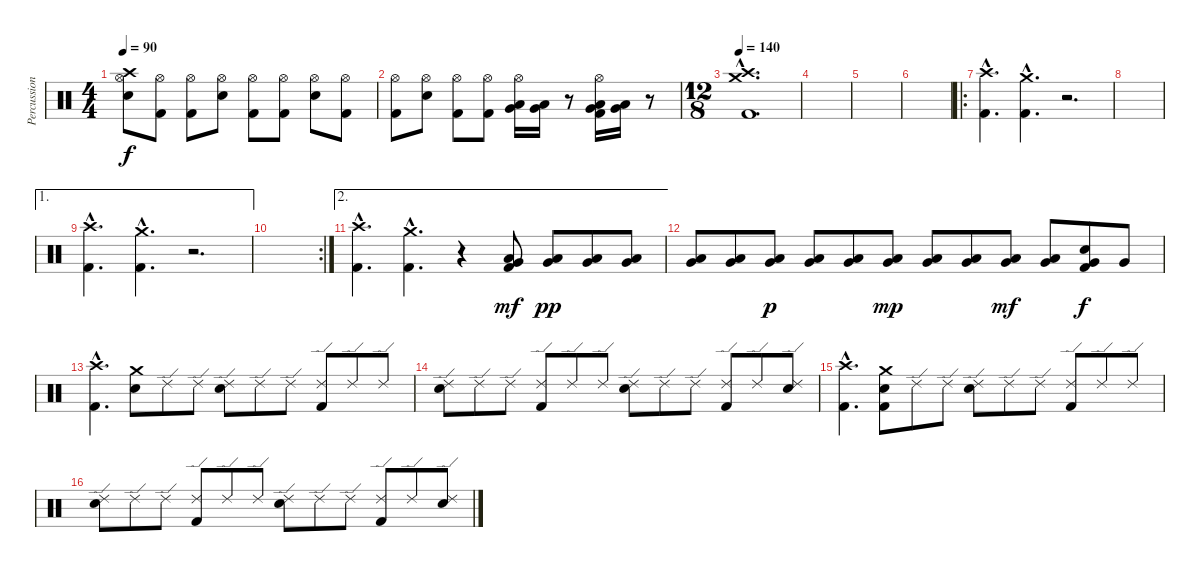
\track ("Percussion" "Percussion") {instrument percussion}
\staff {score}
\articulation defaults
\ts (4 4)
\tempo 90
\clef neutral
\ks c
("Crash high (hit)" "Hi-Hat (open)" "Electric Snare (hit)").8{dy f} ("Hi-Hat (open)" "Kick (hit) 2").8 ("Hi-Hat (open)" "Kick (hit) 2").8 ("Hi-Hat (open)" "Electric Snare (hit)").8 ("Hi-Hat (open)" "Kick (hit) 2").8 ("Hi-Hat (open)" "Kick (hit) 2").8 ("Hi-Hat (open)" "Electric Snare (hit)").8 ("Hi-Hat (open)" "Kick (hit) 2").8 |
("Hi-Hat (open)" "Kick (hit) 2").8 ("Hi-Hat (open)" "Electric Snare (hit)").8 ("Hi-Hat (open)" "Kick (hit) 2").8 ("Hi-Hat (open)" "Kick (hit) 2").8 ("Hi-Hat (open)" "Very Low Tom (hit)" "Low Tom (hit)").16 ("Very Low Tom (hit)" "Low Tom (hit)").16 r.8 ("Hi-Hat (open)" "Very Low Tom (hit)" "Low Tom (hit)" "Kick (hit) 2").16 ("Very Low Tom (hit)" "Low Tom (hit)").16 r.8 |
\ts (12 8)
\tempo 140
("Crash medium (hit)"{hac} "Crash high (hit)"{hac} "Kick (hit) 2"{hac}).1{d} |
|
|
|
\ro
("Crash high (hit)"{hac} "Kick (hit) 2"{hac}).4{d} ("Crash medium (hit)"{hac} "Kick (hit) 2"{hac}).4{d} r.2{d} |
|
\ae 1
("Crash high (hit)"{hac} "Kick (hit) 2"{hac}).4{d} ("Crash medium (hit)"{hac} "Kick (hit) 2"{hac}).4{d} r.2{d} |
\rc 2
|
\ae 2
("Crash high (hit)"{hac} "Kick (hit) 2"{hac}).4{d} ("Crash medium (hit)"{hac} "Kick (hit) 2"{hac}).4{d} r.4 ("Very Low Tom (hit)" "Low Floor Tom (hit)" "Kick (hit) 2").8{dy mf} ("Very Low Tom (hit)" "Low Floor Tom (hit)").8{dy pp} ("Very Low Tom (hit)" "Low Floor Tom (hit)").8 ("Very Low Tom (hit)" "Low Floor Tom (hit)").8 |
("Very Low Tom (hit)" "Low Floor Tom (hit)").8 ("Very Low Tom (hit)" "Low Floor Tom (hit)").8 ("Very Low Tom (hit)" "Low Floor Tom (hit)").8{dy p} ("Very Low Tom (hit)" "Low Floor Tom (hit)").8 ("Very Low Tom (hit)" "Low Floor Tom (hit)").8 ("Very Low Tom (hit)" "Low Floor Tom (hit)").8{dy mp} ("Low Tom (hit)" "Very Low Tom (hit)").8 ("Low Tom (hit)" "Very Low Tom (hit)").8 ("Low Tom (hit)" "Very Low Tom (hit)").8{dy mf} ("Low Tom (hit)" "Very Low Tom (hit)").8 ("Electric Snare (hit)" "Very Low Tom (hit)" "Kick (hit) 2").8{dy f} "Very Low Tom (hit)".8 |
("Crash high (hit)"{hac} "Kick (hit) 2"{hac}).4{d} ("Crash medium (hit)" "Electric Snare (hit)").8 "Ride (edge) 2".8 "Ride (edge) 2".8 ("Ride (edge) 2" "Electric Snare (hit)").8 "Ride (edge) 2".8 "Ride (edge) 2".8 ("Ride (edge) 2" "Kick (hit) 2").8 "Ride (edge) 2".8 "Ride (edge) 2".8 |
("Ride (edge) 2" "Electric Snare (hit)").8 "Ride (edge) 2".8 "Ride (edge) 2".8 ("Ride (edge) 2" "Kick (hit) 2").8 "Ride (edge) 2".8 "Ride (edge) 2".8 ("Ride (edge) 2" "Electric Snare (hit)").8 "Ride (edge) 2".8 "Ride (edge) 2".8 ("Ride (edge) 2" "Kick (hit) 2").8 "Ride (edge) 2".8 ("Ride (edge) 2" "Electric Snare (hit)").8 |
("Crash high (hit)"{hac} "Kick (hit) 2"{hac}).4{d} ("Crash medium (hit)" "Electric Snare (hit)" "Kick (hit) 2").8 "Ride (edge) 2".8 "Ride (edge) 2".8 ("Ride (edge) 2" "Electric Snare (hit)").8 "Ride (edge) 2".8 "Ride (edge) 2".8 ("Ride (edge) 2" "Kick (hit) 2").8 "Ride (edge) 2".8 "Ride (edge) 2".8 |
("Ride (edge) 2" "Electric Snare (hit)").8 "Ride (edge) 2".8 "Ride (edge) 2".8 ("Ride (edge) 2" "Kick (hit) 2").8 "Ride (edge) 2".8 "Ride (edge) 2".8 ("Ride (edge) 2" "Electric Snare (hit)").8 "Ride (edge) 2".8 "Ride (edge) 2".8 ("Ride (edge) 2" "Kick (hit) 2").8 "Ride (edge) 2".8 ("Ride (edge) 2" "Electric Snare (hit)").8
